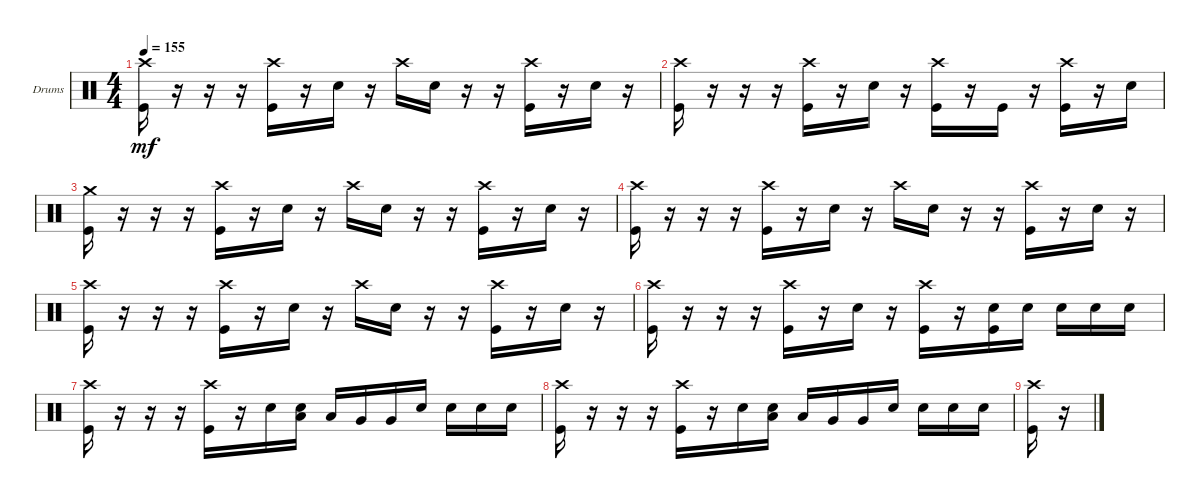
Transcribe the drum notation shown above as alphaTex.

\defaultSystemsLayout 4
\bracketExtendMode groupsimilarinstruments
\firstSystemTrackNameOrientation horizontal
\otherSystemsTrackNameOrientation horizontal
\track ("Drumkit" "Drums") {instrument percussion}
\staff {score}
\articulation defaults
\ts (4 4)
\tempo 155
\clef neutral
\ks c
("Kick (hit)" "Crash high (hit)").16{dy mf} r.16 r.16 r.16 ("Kick (hit)" "Crash high (hit)").16 r.16 "Snare (hit) 2".16 r.16 "Crash high (hit)".16 "Snare (hit) 2".16 r.16 r.16 ("Crash high (hit)" "Kick (hit)").16 r.16 "Snare (hit) 2".16 r.16 |
("Kick (hit)" "Crash high (hit)").16 r.16 r.16 r.16 ("Kick (hit)" "Crash high (hit)").16 r.16 "Snare (hit) 2".16 r.16 ("Kick (hit)" "Crash high (hit)").16 r.16 "Kick (hit)".16 r.16 ("Kick (hit)" "Crash high (hit)").16 r.16 "Snare (hit) 2".16 |
("Kick (hit)" "Crash medium (hit)").16 r.16 r.16 r.16 ("Kick (hit)" "Crash high (hit)").16 r.16 "Snare (hit) 2".16 r.16 "Crash high (hit)".16 "Snare (hit) 2".16 r.16 r.16 ("Crash high (hit)" "Kick (hit)").16 r.16 "Snare (hit) 2".16 r.16 |
("Kick (hit)" "Crash high (hit)").16 r.16 r.16 r.16 ("Kick (hit)" "Crash high (hit)").16 r.16 "Snare (hit) 2".16 r.16 "Crash high (hit)".16 "Snare (hit) 2".16 r.16 r.16 ("Crash high (hit)" "Kick (hit)").16 r.16 "Snare (hit) 2".16 r.16 |
("Kick (hit)" "Crash high (hit)").16 r.16 r.16 r.16 ("Kick (hit)" "Crash high (hit)").16 r.16 "Snare (hit) 2".16 r.16 "Crash high (hit)".16 "Snare (hit) 2".16 r.16 r.16 ("Crash high (hit)" "Kick (hit)").16 r.16 "Snare (hit) 2".16 r.16 |
("Kick (hit)" "Crash high (hit)").16 r.16 r.16 r.16 ("Kick (hit)" "Crash high (hit)").16 r.16 "Snare (hit) 2".16 r.16 ("Kick (hit)" "Crash high (hit)").16 r.16 ("Kick (hit)" "Snare (hit) 2").16 "Snare (hit) 2".16 "Snare (hit) 2".16 "Snare (hit) 2".16 "Snare (hit) 2".16 |
("Kick (hit)" "Crash high (hit)").16 r.16 r.16 r.16 ("Kick (hit)" "Crash high (hit)").16 r.16 "Snare (hit) 2".16 ("Snare (hit) 2" "Low Tom (hit)").16 "Low Tom (hit)".16 "Very Low Tom (hit)".16 "Very Low Tom (hit)".16 "Snare (hit) 2".16 "Snare (hit) 2".16 "Snare (hit) 2".16 "Snare (hit) 2".16 |
("Kick (hit)" "Crash high (hit)").16 r.16 r.16 r.16 ("Kick (hit)" "Crash high (hit)").16 r.16 "Snare (hit) 2".16 ("Snare (hit) 2" "Low Tom (hit)").16 "Low Tom (hit)".16 "Very Low Tom (hit)".16 "Very Low Tom (hit)".16 "Snare (hit) 2".16 "Snare (hit) 2".16 "Snare (hit) 2".16 "Snare (hit) 2".16 |
("Kick (hit)" "Crash high (hit)").16 r.16
